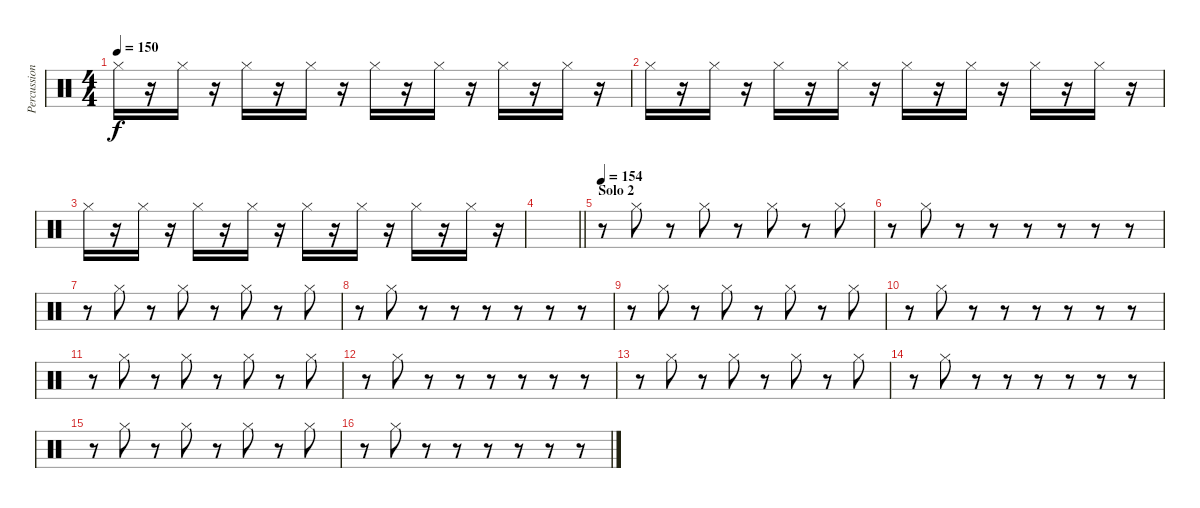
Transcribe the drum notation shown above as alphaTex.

\track ("Percussion" "Percussion") {instrument percussion}
\staff {score}
\articulation defaults
\ts (4 4)
\tempo 150
\clef neutral
\ks c "Hi-Hat (closed)".16{dy f}
r.16 "Hi-Hat (closed)".16 r.16 "Hi-Hat (closed)".16 r.16 "Hi-Hat (closed)".16 r.16 "Hi-Hat (closed)".16 r.16 "Hi-Hat (closed)".16 r.16 "Hi-Hat (closed)".16 r.16 "Hi-Hat (closed)".16 r.16 |
"Hi-Hat (closed)".16 r.16 "Hi-Hat (closed)".16 r.16 "Hi-Hat (closed)".16 r.16 "Hi-Hat (closed)".16 r.16 "Hi-Hat (closed)".16 r.16 "Hi-Hat (closed)".16 r.16 "Hi-Hat (closed)".16 r.16 "Hi-Hat (closed)".16 r.16 |
"Hi-Hat (closed)".16 r.16 "Hi-Hat (closed)".16 r.16 "Hi-Hat (closed)".16 r.16 "Hi-Hat (closed)".16 r.16 "Hi-Hat (closed)".16 r.16 "Hi-Hat (closed)".16 r.16 "Hi-Hat (closed)".16 r.16 "Hi-Hat (closed)".16 r.16 |
\barLineRight lightlight
|
\section ("" "Solo 2")
\tempo 154
r.8 "Hi-Hat (closed)".8 r.8 "Hi-Hat (closed)".8 r.8 "Hi-Hat (closed)".8 r.8 "Hi-Hat (closed)".8 |
r.8 "Hi-Hat (closed)".8 r.8 r.8 r.8 r.8 r.8 r.8 |
r.8 "Hi-Hat (closed)".8 r.8 "Hi-Hat (closed)".8 r.8 "Hi-Hat (closed)".8 r.8 "Hi-Hat (closed)".8 |
r.8 "Hi-Hat (closed)".8 r.8 r.8 r.8 r.8 r.8 r.8 |
r.8 "Hi-Hat (closed)".8 r.8 "Hi-Hat (closed)".8 r.8 "Hi-Hat (closed)".8 r.8 "Hi-Hat (closed)".8 |
r.8 "Hi-Hat (closed)".8 r.8 r.8 r.8 r.8 r.8 r.8 |
r.8 "Hi-Hat (closed)".8 r.8 "Hi-Hat (closed)".8 r.8 "Hi-Hat (closed)".8 r.8 "Hi-Hat (closed)".8 |
r.8 "Hi-Hat (closed)".8 r.8 r.8 r.8 r.8 r.8 r.8 |
r.8 "Hi-Hat (closed)".8 r.8 "Hi-Hat (closed)".8 r.8 "Hi-Hat (closed)".8 r.8 "Hi-Hat (closed)".8 |
r.8 "Hi-Hat (closed)".8 r.8 r.8 r.8 r.8 r.8 r.8 |
r.8 "Hi-Hat (closed)".8 r.8 "Hi-Hat (closed)".8 r.8 "Hi-Hat (closed)".8 r.8 "Hi-Hat (closed)".8 |
r.8 "Hi-Hat (closed)".8 r.8 r.8 r.8 r.8 r.8 r.8
